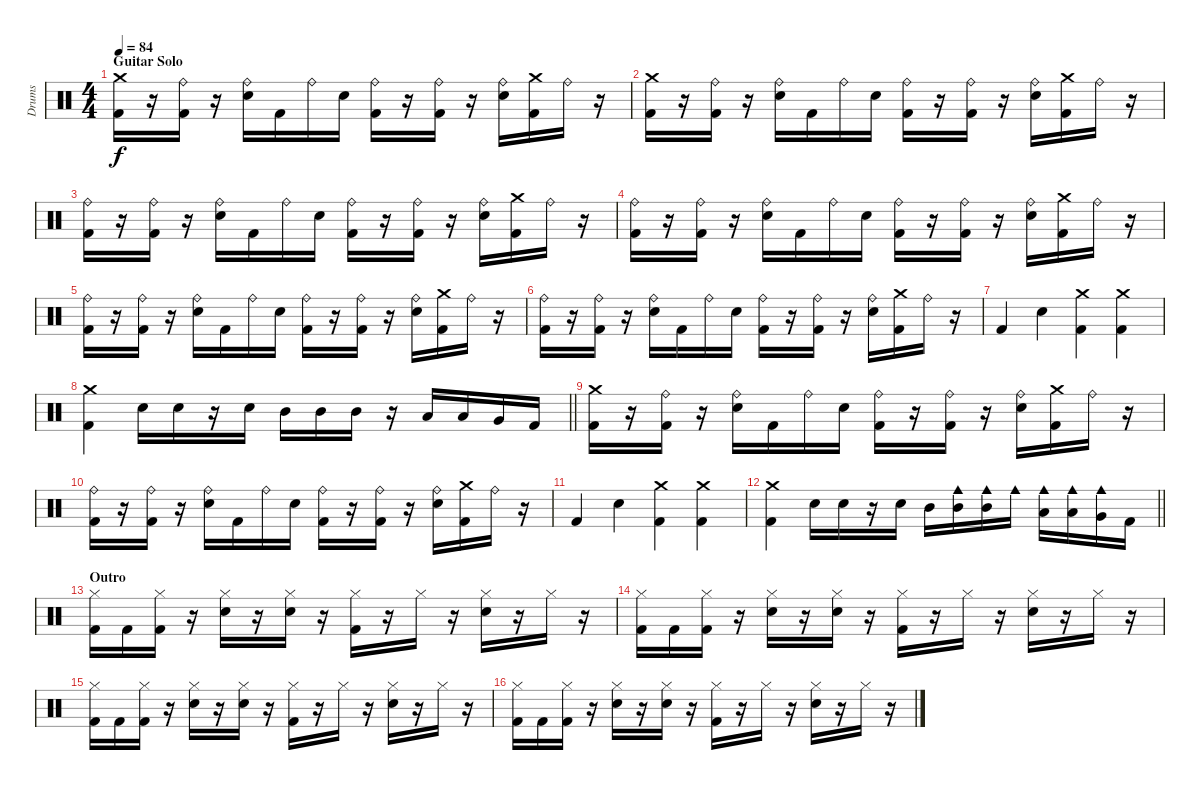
\track ("Drums" "Drums") {instrument percussion}
\staff {score}
\articulation defaults
\ts (4 4)
\section ("" "Guitar Solo")
\tempo 84
\clef neutral
\ks c
("Crash medium (hit)" "Kick (hit) 2").16{dy f} r.16 ("Ride (bell)" "Kick (hit) 2").16 r.16 ("Ride (bell)" "Snare (hit) 2").16 "Kick (hit) 2".16 "Ride (bell)".16 "Snare (hit) 2".16 ("Ride (bell)" "Kick (hit) 2").16 r.16 ("Ride (bell)" "Kick (hit) 2").16 r.16 ("Ride (bell)" "Snare (hit) 2").16 ("Crash medium (hit)" "Kick (hit) 2").16 "Ride (bell)".16 r.16 |
("Crash medium (hit)" "Kick (hit) 2").16 r.16 ("Ride (bell)" "Kick (hit) 2").16 r.16 ("Ride (bell)" "Snare (hit) 2").16 "Kick (hit) 2".16 "Ride (bell)".16 "Snare (hit) 2".16 ("Ride (bell)" "Kick (hit) 2").16 r.16 ("Ride (bell)" "Kick (hit) 2").16 r.16 ("Ride (bell)" "Snare (hit) 2").16 ("Crash medium (hit)" "Kick (hit) 2").16 "Ride (bell)".16 r.16 |
("Ride (bell)" "Kick (hit) 2").16 r.16 ("Ride (bell)" "Kick (hit) 2").16 r.16 ("Ride (bell)" "Snare (hit) 2").16 "Kick (hit) 2".16 "Ride (bell)".16 "Snare (hit) 2".16 ("Ride (bell)" "Kick (hit) 2").16 r.16 ("Ride (bell)" "Kick (hit) 2").16 r.16 ("Ride (bell)" "Snare (hit) 2").16 ("Crash medium (hit)" "Kick (hit) 2").16 "Ride (bell)".16 r.16 |
("Ride (bell)" "Kick (hit) 2").16 r.16 ("Ride (bell)" "Kick (hit) 2").16 r.16 ("Ride (bell)" "Snare (hit) 2").16 "Kick (hit) 2".16 "Ride (bell)".16 "Snare (hit) 2".16 ("Ride (bell)" "Kick (hit) 2").16 r.16 ("Ride (bell)" "Kick (hit) 2").16 r.16 ("Ride (bell)" "Snare (hit) 2").16 ("Crash medium (hit)" "Kick (hit) 2").16 "Ride (bell)".16 r.16 |
("Ride (bell)" "Kick (hit) 2").16 r.16 ("Ride (bell)" "Kick (hit) 2").16 r.16 ("Ride (bell)" "Snare (hit) 2").16 "Kick (hit) 2".16 "Ride (bell)".16 "Snare (hit) 2".16 ("Ride (bell)" "Kick (hit) 2").16 r.16 ("Ride (bell)" "Kick (hit) 2").16 r.16 ("Ride (bell)" "Snare (hit) 2").16 ("Crash medium (hit)" "Kick (hit) 2").16 "Ride (bell)".16 r.16 |
("Ride (bell)" "Kick (hit) 2").16 r.16 ("Ride (bell)" "Kick (hit) 2").16 r.16 ("Ride (bell)" "Snare (hit) 2").16 "Kick (hit) 2".16 "Ride (bell)".16 "Snare (hit) 2".16 ("Ride (bell)" "Kick (hit) 2").16 r.16 ("Ride (bell)" "Kick (hit) 2").16 r.16 ("Ride (bell)" "Snare (hit) 2").16 ("Crash medium (hit)" "Kick (hit) 2").16 "Ride (bell)".16 r.16 |
"Kick (hit) 2".4 "Snare (hit) 2".4 ("Crash medium (hit)" "Kick (hit) 2").4 ("Crash medium (hit)" "Kick (hit) 2").4 |
\barLineRight lightlight
("Crash medium (hit)" "Kick (hit) 2").4 "Snare (hit) 2".16 "Snare (hit) 2".16 r.16 "Snare (hit) 2".16 "Mid Tom (hit)".16 "Mid Tom (hit)".16 "Mid Tom (hit)".16 r.16 "Low Tom (hit)".16 "Low Tom (hit)".16 "Very Low Tom (hit)".16 "Kick (hit) 2".16 |
("Crash medium (hit)" "Kick (hit) 2").16 r.16 ("Ride (bell)" "Kick (hit) 2").16 r.16 ("Ride (bell)" "Snare (hit) 2").16 "Kick (hit) 2".16 "Ride (bell)".16 "Snare (hit) 2".16 ("Ride (bell)" "Kick (hit) 2").16 r.16 ("Ride (bell)" "Kick (hit) 2").16 r.16 ("Ride (bell)" "Snare (hit) 2").16 ("Crash medium (hit)" "Kick (hit) 2").16 "Ride (bell)".16 r.16 |
("Ride (bell)" "Kick (hit) 2").16 r.16 ("Ride (bell)" "Kick (hit) 2").16 r.16 ("Ride (bell)" "Snare (hit) 2").16 "Kick (hit) 2".16 "Ride (bell)".16 "Snare (hit) 2".16 ("Ride (bell)" "Kick (hit) 2").16 r.16 ("Ride (bell)" "Kick (hit) 2").16 r.16 ("Ride (bell)" "Snare (hit) 2").16 ("Crash medium (hit)" "Kick (hit) 2").16 "Ride (bell)".16 r.16 |
"Kick (hit) 2".4 "Snare (hit) 2".4 ("Crash medium (hit)" "Kick (hit) 2").4 ("Crash medium (hit)" "Kick (hit) 2").4 |
\barLineRight lightlight
("Crash medium (hit)" "Kick (hit) 2").4 "Snare (hit) 2".16 "Snare (hit) 2".16 r.16 "Snare (hit) 2".16 "Mid Tom (hit)".16 ("Cowbell medium (hit)" "Mid Tom (hit)").16 ("Cowbell medium (hit)" "Mid Tom (hit)").16 "Cowbell medium (hit)".16 ("Cowbell medium (hit)" "Low Tom (hit)").16 ("Cowbell medium (hit)" "Low Tom (hit)").16 ("Cowbell medium (hit)" "Very Low Tom (hit)").16 "Kick (hit) 2".16 |
\section ("" "Outro")
("Hi-Hat (closed)" "Kick (hit) 2").16 "Kick (hit) 2".16 ("Hi-Hat (closed)" "Kick (hit) 2").16 r.16 ("Hi-Hat (closed)" "Snare (hit) 2").16 r.16 ("Hi-Hat (closed)" "Snare (hit) 2").16 r.16 ("Hi-Hat (closed)" "Kick (hit) 2").16 r.16 "Hi-Hat (closed)".16 r.16 ("Hi-Hat (closed)" "Snare (hit) 2").16 r.16 "Hi-Hat (closed)".16 r.16 |
("Hi-Hat (closed)" "Kick (hit) 2").16 "Kick (hit) 2".16 ("Hi-Hat (closed)" "Kick (hit) 2").16 r.16 ("Hi-Hat (closed)" "Snare (hit) 2").16 r.16 ("Hi-Hat (closed)" "Snare (hit) 2").16 r.16 ("Hi-Hat (closed)" "Kick (hit) 2").16 r.16 "Hi-Hat (closed)".16 r.16 ("Hi-Hat (closed)" "Snare (hit) 2").16 r.16 "Hi-Hat (closed)".16 r.16 |
("Hi-Hat (closed)" "Kick (hit) 2").16 "Kick (hit) 2".16 ("Hi-Hat (closed)" "Kick (hit) 2").16 r.16 ("Hi-Hat (closed)" "Snare (hit) 2").16 r.16 ("Hi-Hat (closed)" "Snare (hit) 2").16 r.16 ("Hi-Hat (closed)" "Kick (hit) 2").16 r.16 "Hi-Hat (closed)".16 r.16 ("Hi-Hat (closed)" "Snare (hit) 2").16 r.16 "Hi-Hat (closed)".16 r.16 |
("Hi-Hat (closed)" "Kick (hit) 2").16 "Kick (hit) 2".16 ("Hi-Hat (closed)" "Kick (hit) 2").16 r.16 ("Hi-Hat (closed)" "Snare (hit) 2").16 r.16 ("Hi-Hat (closed)" "Snare (hit) 2").16 r.16 ("Hi-Hat (closed)" "Kick (hit) 2").16 r.16 "Hi-Hat (closed)".16 r.16 ("Hi-Hat (closed)" "Snare (hit) 2").16 r.16 "Hi-Hat (closed)".16 r.16
